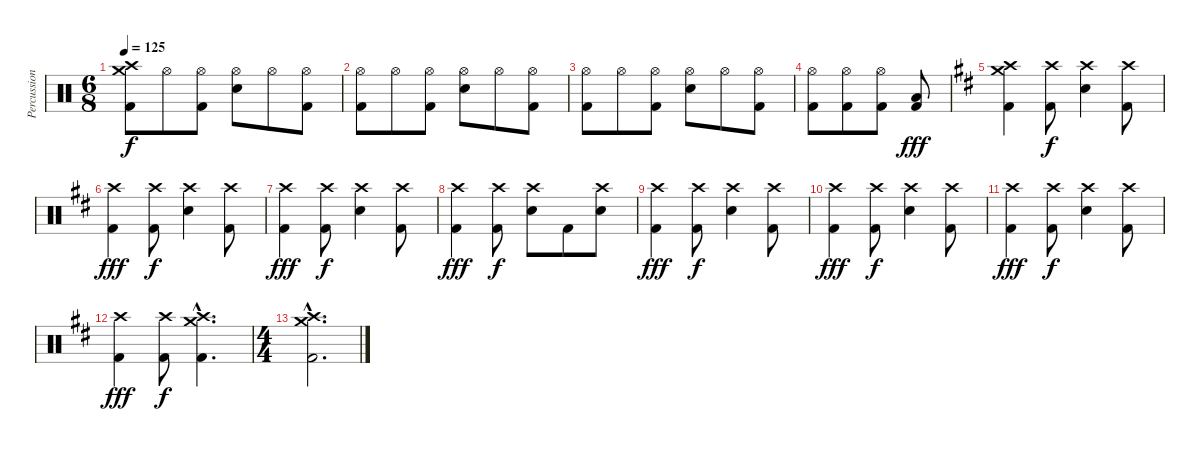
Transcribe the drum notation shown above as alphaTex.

\track ("Percussion" "Percussion") {instrument percussion}
\staff {score}
\articulation defaults
\ts (6 8)
\tempo 125
\clef neutral
\ks c
("Crash high (hit)" "Crash medium (hit)" "Kick (hit) 2").8{dy f} "Hi-Hat (open)".8 ("Hi-Hat (open)" "Kick (hit) 2").8 ("Hi-Hat (open)" "Electric Snare (hit)").8 "Hi-Hat (open)".8 ("Hi-Hat (open)" "Kick (hit) 2").8 |
("Hi-Hat (open)" "Kick (hit) 2").8 "Hi-Hat (open)".8 ("Hi-Hat (open)" "Kick (hit) 2").8 ("Hi-Hat (open)" "Electric Snare (hit)").8 "Hi-Hat (open)".8 ("Hi-Hat (open)" "Kick (hit) 2").8 |
("Hi-Hat (open)" "Kick (hit) 2").8 "Hi-Hat (open)".8 ("Hi-Hat (open)" "Kick (hit) 2").8 ("Hi-Hat (open)" "Electric Snare (hit)").8 "Hi-Hat (open)".8 ("Hi-Hat (open)" "Kick (hit) 2").8 |
("Hi-Hat (open)" "Kick (hit) 2").8 ("Hi-Hat (open)" "Kick (hit) 2").8 ("Hi-Hat (open)" "Kick (hit) 2").8 ("Kick (hit) 2" "Low Floor Tom (hit)").8{bu 120 dy fff} |
\ks d
("Crash medium (hit)" "Crash high (hit)" "Kick (hit) 2").4 ("Crash high (hit)" "Kick (hit) 2").8{dy f} ("Crash high (hit)" "Electric Snare (hit)").4 ("Crash high (hit)" "Kick (hit) 2").8 |
("Crash high (hit)" "Kick (hit) 2").4{dy fff} ("Crash high (hit)" "Kick (hit) 2").8{dy f} ("Crash high (hit)" "Electric Snare (hit)").4 ("Crash high (hit)" "Kick (hit) 2").8 |
("Crash high (hit)" "Kick (hit) 2").4{dy fff} ("Crash high (hit)" "Kick (hit) 2").8{dy f} ("Crash high (hit)" "Electric Snare (hit)").4 ("Crash high (hit)" "Kick (hit) 2").8 |
("Crash high (hit)" "Kick (hit) 2").4{dy fff} ("Crash high (hit)" "Kick (hit) 2").8{dy f} ("Crash high (hit)" "Electric Snare (hit)").8 "Kick (hit) 2".8 ("Crash high (hit)" "Electric Snare (hit)").8 |
("Crash high (hit)" "Kick (hit) 2").4{dy fff} ("Crash high (hit)" "Kick (hit) 2").8{dy f} ("Crash high (hit)" "Electric Snare (hit)").4 ("Crash high (hit)" "Kick (hit) 2").8 |
("Crash high (hit)" "Kick (hit) 2").4{dy fff} ("Crash high (hit)" "Kick (hit) 2").8{dy f} ("Crash high (hit)" "Electric Snare (hit)").4 ("Crash high (hit)" "Kick (hit) 2").8 |
("Crash high (hit)" "Kick (hit) 2").4{dy fff} ("Crash high (hit)" "Kick (hit) 2").8{dy f} ("Crash high (hit)" "Electric Snare (hit)").4 ("Crash high (hit)" "Kick (hit) 2").8 |
("Crash high (hit)" "Kick (hit) 2").4{dy fff} ("Crash high (hit)" "Kick (hit) 2").8{dy f} ("Crash medium (hit)"{hac} "Crash high (hit)"{hac} "Kick (hit) 2"{hac}).4{d} |
\ts (4 4)
("Crash medium (hit)"{hac} "Crash high (hit)"{hac} "Kick (hit) 2"{hac}).2{d}
